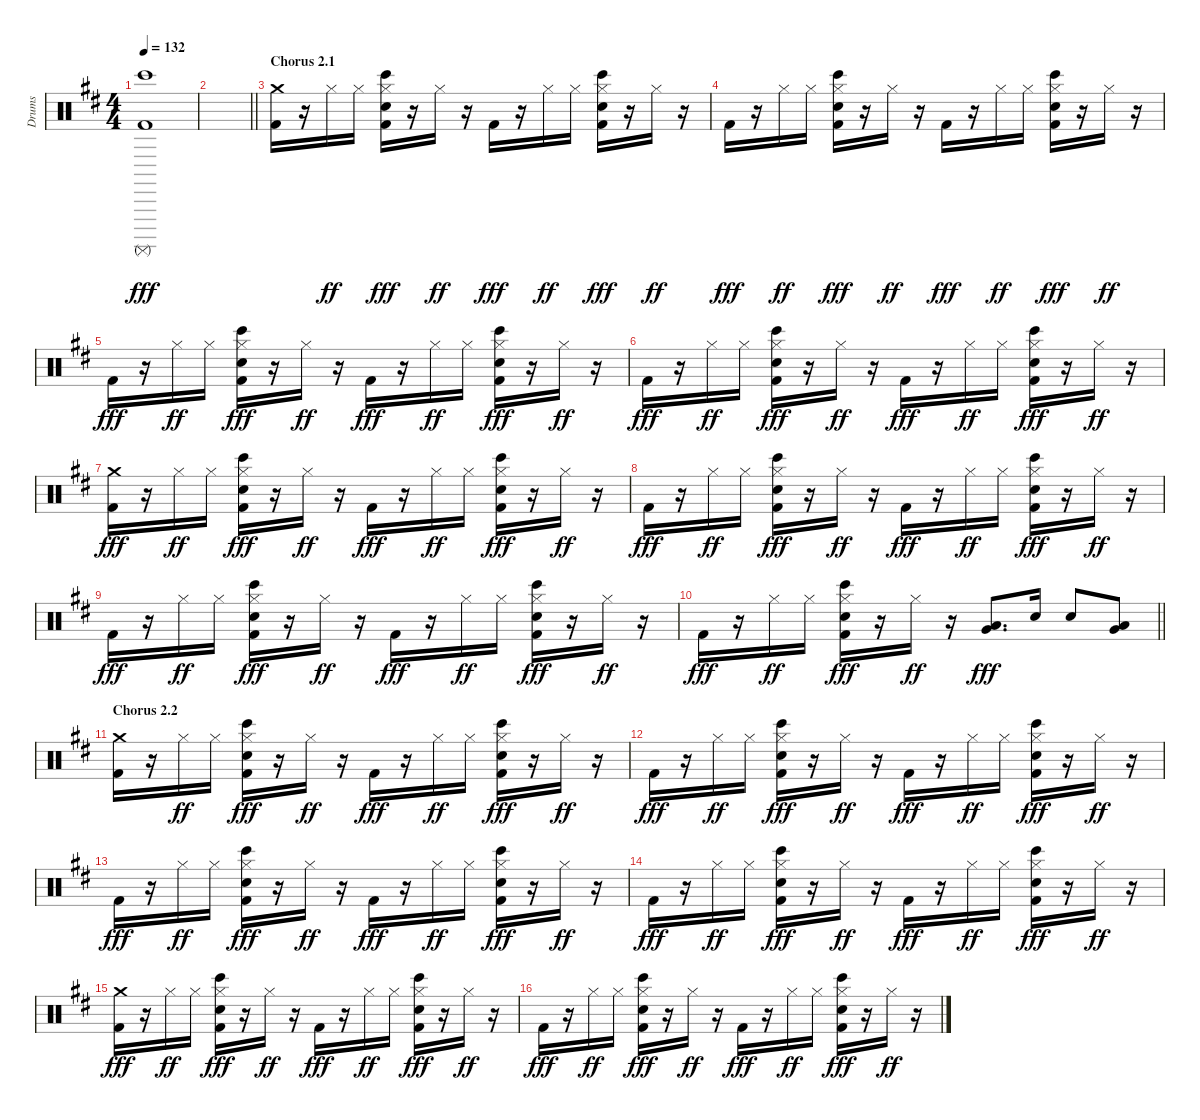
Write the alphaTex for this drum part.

\track ("Drums" "Drums") {instrument percussion}
\staff {score}
\articulation defaults
\ts (4 4)
\tempo 132
\clef neutral
\ks d
("Bongo High (hit)" "Surdo (mute)" "Kick (hit) 2").1{dy fff} |
\barLineRight lightlight
|
\section ("" "Chorus 2.1")
("Crash medium (hit)" "Kick (hit) 2").16 r.16 "Hi-Hat (closed)".16{dy ff} "Hi-Hat (closed)".16 ("Hi-Hat (closed)" "Electric Snare (hit)" "Bongo High (hit)" "Kick (hit) 2").16{dy fff} r.16 "Hi-Hat (closed)".16{dy ff} r.16 "Kick (hit) 2".16{dy fff} r.16 "Hi-Hat (closed)".16{dy ff} "Hi-Hat (closed)".16 ("Hi-Hat (closed)" "Electric Snare (hit)" "Bongo High (hit)" "Kick (hit) 2").16{dy fff} r.16 "Hi-Hat (closed)".16{dy ff} r.16 |
"Kick (hit) 2".16{dy fff} r.16 "Hi-Hat (closed)".16{dy ff} "Hi-Hat (closed)".16 ("Hi-Hat (closed)" "Electric Snare (hit)" "Bongo High (hit)" "Kick (hit) 2").16{dy fff} r.16 "Hi-Hat (closed)".16{dy ff} r.16 "Kick (hit) 2".16{dy fff} r.16 "Hi-Hat (closed)".16{dy ff} "Hi-Hat (closed)".16 ("Hi-Hat (closed)" "Electric Snare (hit)" "Bongo High (hit)" "Kick (hit) 2").16{dy fff} r.16 "Hi-Hat (closed)".16{dy ff} r.16 |
"Kick (hit) 2".16{dy fff} r.16 "Hi-Hat (closed)".16{dy ff} "Hi-Hat (closed)".16 ("Hi-Hat (closed)" "Electric Snare (hit)" "Bongo High (hit)" "Kick (hit) 2").16{dy fff} r.16 "Hi-Hat (closed)".16{dy ff} r.16 "Kick (hit) 2".16{dy fff} r.16 "Hi-Hat (closed)".16{dy ff} "Hi-Hat (closed)".16 ("Hi-Hat (closed)" "Electric Snare (hit)" "Bongo High (hit)" "Kick (hit) 2").16{dy fff} r.16 "Hi-Hat (closed)".16{dy ff} r.16 |
"Kick (hit) 2".16{dy fff} r.16 "Hi-Hat (closed)".16{dy ff} "Hi-Hat (closed)".16 ("Hi-Hat (closed)" "Electric Snare (hit)" "Bongo High (hit)" "Kick (hit) 2").16{dy fff} r.16 "Hi-Hat (closed)".16{dy ff} r.16 "Kick (hit) 2".16{dy fff} r.16 "Hi-Hat (closed)".16{dy ff} "Hi-Hat (closed)".16 ("Hi-Hat (closed)" "Electric Snare (hit)" "Bongo High (hit)" "Kick (hit) 2").16{dy fff} r.16 "Hi-Hat (closed)".16{dy ff} r.16 |
("Crash medium (hit)" "Kick (hit) 2").16{dy fff} r.16 "Hi-Hat (closed)".16{dy ff} "Hi-Hat (closed)".16 ("Hi-Hat (closed)" "Electric Snare (hit)" "Bongo High (hit)" "Kick (hit) 2").16{dy fff} r.16 "Hi-Hat (closed)".16{dy ff} r.16 "Kick (hit) 2".16{dy fff} r.16 "Hi-Hat (closed)".16{dy ff} "Hi-Hat (closed)".16 ("Hi-Hat (closed)" "Electric Snare (hit)" "Bongo High (hit)" "Kick (hit) 2").16{dy fff} r.16 "Hi-Hat (closed)".16{dy ff} r.16 |
"Kick (hit) 2".16{dy fff} r.16 "Hi-Hat (closed)".16{dy ff} "Hi-Hat (closed)".16 ("Hi-Hat (closed)" "Electric Snare (hit)" "Bongo High (hit)" "Kick (hit) 2").16{dy fff} r.16 "Hi-Hat (closed)".16{dy ff} r.16 "Kick (hit) 2".16{dy fff} r.16 "Hi-Hat (closed)".16{dy ff} "Hi-Hat (closed)".16 ("Hi-Hat (closed)" "Electric Snare (hit)" "Bongo High (hit)" "Kick (hit) 2").16{dy fff} r.16 "Hi-Hat (closed)".16{dy ff} r.16 |
"Kick (hit) 2".16{dy fff} r.16 "Hi-Hat (closed)".16{dy ff} "Hi-Hat (closed)".16 ("Hi-Hat (closed)" "Electric Snare (hit)" "Bongo High (hit)" "Kick (hit) 2").16{dy fff} r.16 "Hi-Hat (closed)".16{dy ff} r.16 "Kick (hit) 2".16{dy fff} r.16 "Hi-Hat (closed)".16{dy ff} "Hi-Hat (closed)".16 ("Hi-Hat (closed)" "Electric Snare (hit)" "Bongo High (hit)" "Kick (hit) 2").16{dy fff} r.16 "Hi-Hat (closed)".16{dy ff} r.16 |
\barLineRight lightlight "Kick (hit) 2".16{dy fff}
r.16 "Hi-Hat (closed)".16{dy ff} "Hi-Hat (closed)".16 ("Hi-Hat (closed)" "Electric Snare (hit)" "Bongo High (hit)" "Kick (hit) 2").16{dy fff} r.16 "Hi-Hat (closed)".16{dy ff} r.16 ("Very Low Tom (hit)" "Low Floor Tom (hit)").8{d dy fff} "Electric Snare (hit)".16 "Electric Snare (hit)".8 ("Very Low Tom (hit)" "Low Floor Tom (hit)").8 |
\section ("" "Chorus 2.2")
("Crash medium (hit)" "Kick (hit) 2").16 r.16 "Hi-Hat (closed)".16{dy ff} "Hi-Hat (closed)".16 ("Hi-Hat (closed)" "Electric Snare (hit)" "Bongo High (hit)" "Kick (hit) 2").16{dy fff} r.16 "Hi-Hat (closed)".16{dy ff} r.16 "Kick (hit) 2".16{dy fff} r.16 "Hi-Hat (closed)".16{dy ff} "Hi-Hat (closed)".16 ("Hi-Hat (closed)" "Electric Snare (hit)" "Bongo High (hit)" "Kick (hit) 2").16{dy fff} r.16 "Hi-Hat (closed)".16{dy ff} r.16 |
"Kick (hit) 2".16{dy fff} r.16 "Hi-Hat (closed)".16{dy ff} "Hi-Hat (closed)".16 ("Hi-Hat (closed)" "Electric Snare (hit)" "Bongo High (hit)" "Kick (hit) 2").16{dy fff} r.16 "Hi-Hat (closed)".16{dy ff} r.16 "Kick (hit) 2".16{dy fff} r.16 "Hi-Hat (closed)".16{dy ff} "Hi-Hat (closed)".16 ("Hi-Hat (closed)" "Electric Snare (hit)" "Bongo High (hit)" "Kick (hit) 2").16{dy fff} r.16 "Hi-Hat (closed)".16{dy ff} r.16 |
"Kick (hit) 2".16{dy fff} r.16 "Hi-Hat (closed)".16{dy ff} "Hi-Hat (closed)".16 ("Hi-Hat (closed)" "Electric Snare (hit)" "Bongo High (hit)" "Kick (hit) 2").16{dy fff} r.16 "Hi-Hat (closed)".16{dy ff} r.16 "Kick (hit) 2".16{dy fff} r.16 "Hi-Hat (closed)".16{dy ff} "Hi-Hat (closed)".16 ("Hi-Hat (closed)" "Electric Snare (hit)" "Bongo High (hit)" "Kick (hit) 2").16{dy fff} r.16 "Hi-Hat (closed)".16{dy ff} r.16 |
"Kick (hit) 2".16{dy fff} r.16 "Hi-Hat (closed)".16{dy ff} "Hi-Hat (closed)".16 ("Hi-Hat (closed)" "Electric Snare (hit)" "Bongo High (hit)" "Kick (hit) 2").16{dy fff} r.16 "Hi-Hat (closed)".16{dy ff} r.16 "Kick (hit) 2".16{dy fff} r.16 "Hi-Hat (closed)".16{dy ff} "Hi-Hat (closed)".16 ("Hi-Hat (closed)" "Electric Snare (hit)" "Bongo High (hit)" "Kick (hit) 2").16{dy fff} r.16 "Hi-Hat (closed)".16{dy ff} r.16 |
("Crash medium (hit)" "Kick (hit) 2").16{dy fff} r.16 "Hi-Hat (closed)".16{dy ff} "Hi-Hat (closed)".16 ("Hi-Hat (closed)" "Electric Snare (hit)" "Bongo High (hit)" "Kick (hit) 2").16{dy fff} r.16 "Hi-Hat (closed)".16{dy ff} r.16 "Kick (hit) 2".16{dy fff} r.16 "Hi-Hat (closed)".16{dy ff} "Hi-Hat (closed)".16 ("Hi-Hat (closed)" "Electric Snare (hit)" "Bongo High (hit)" "Kick (hit) 2").16{dy fff} r.16 "Hi-Hat (closed)".16{dy ff} r.16 |
"Kick (hit) 2".16{dy fff} r.16 "Hi-Hat (closed)".16{dy ff} "Hi-Hat (closed)".16 ("Hi-Hat (closed)" "Electric Snare (hit)" "Bongo High (hit)" "Kick (hit) 2").16{dy fff} r.16 "Hi-Hat (closed)".16{dy ff} r.16 "Kick (hit) 2".16{dy fff} r.16 "Hi-Hat (closed)".16{dy ff} "Hi-Hat (closed)".16 ("Hi-Hat (closed)" "Electric Snare (hit)" "Bongo High (hit)" "Kick (hit) 2").16{dy fff} r.16 "Hi-Hat (closed)".16{dy ff} r.16
